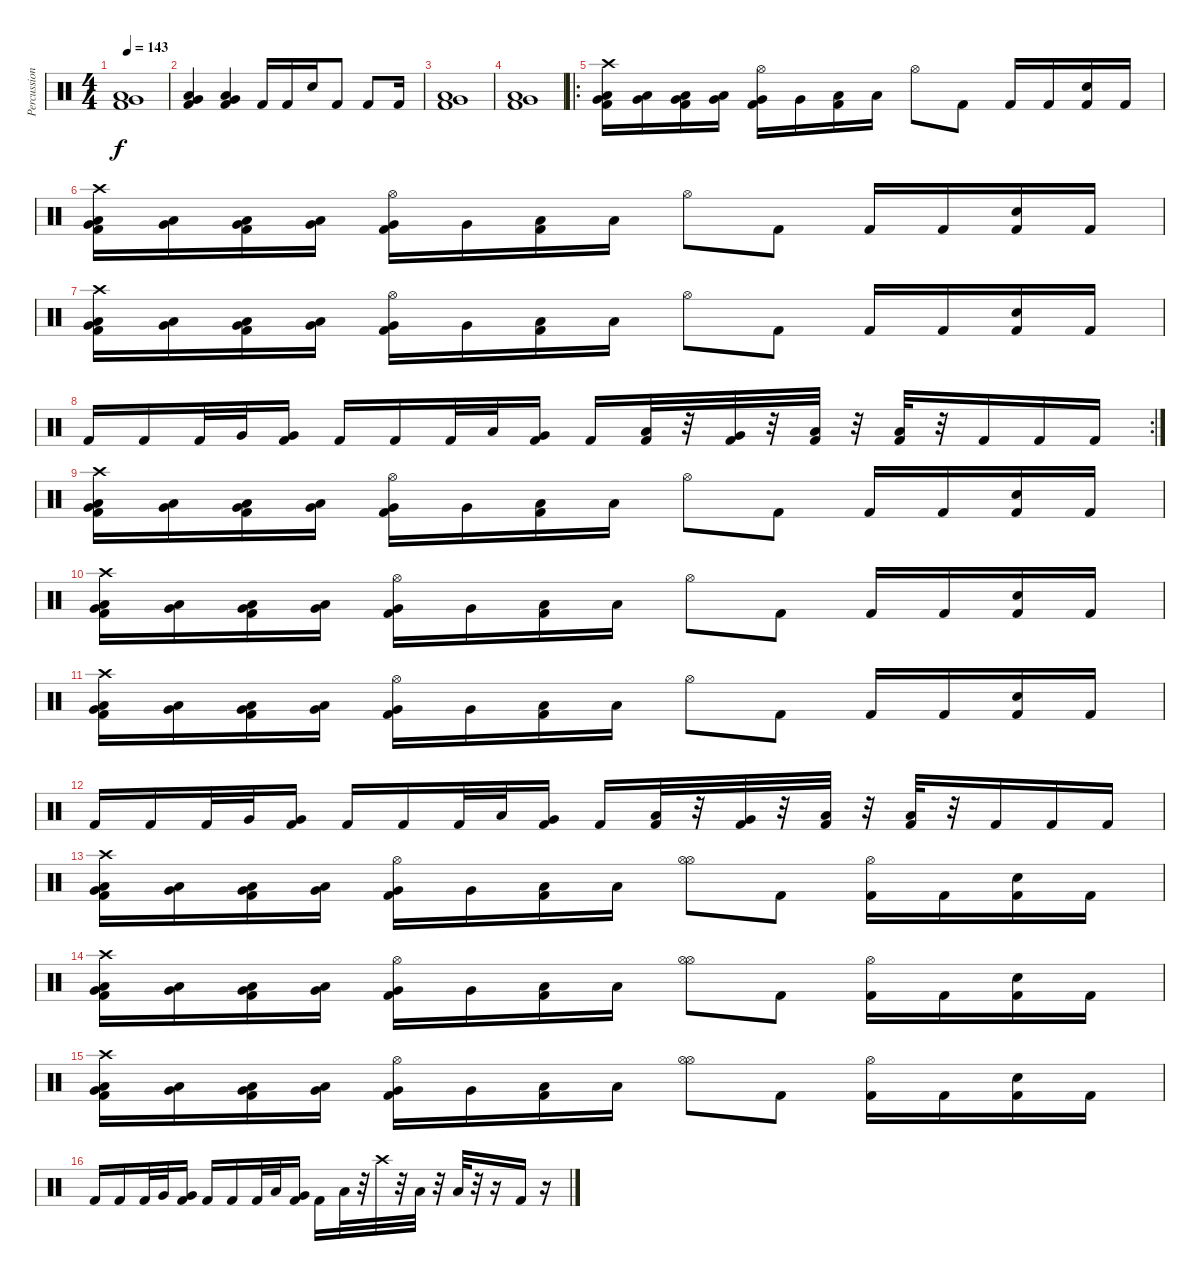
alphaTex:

\track ("Percussions" "Percussion") {instrument percussion}
\staff {score}
\articulation defaults
\ts (4 4)
\tempo 143
\clef neutral
\ks c
("Low Floor Tom (hit)" "Very Low Tom (hit)" "Kick (hit) 2").1{dy f} |
("Very Low Tom (hit)" "Low Floor Tom (hit)" "Kick (hit) 2").4 ("Very Low Tom (hit)" "Low Floor Tom (hit)" "Kick (hit) 2").4 "Kick (hit) 2".16 "Kick (hit) 2".16 "Snare (hit) 2".16 "Kick (hit) 2".8 "Kick (hit) 2".8 "Kick (hit) 2".16 |
("Very Low Tom (hit)" "Low Floor Tom (hit)" "Kick (hit) 2").1 |
("Very Low Tom (hit)" "Low Floor Tom (hit)" "Kick (hit) 2").1 |
\ro
("Crash high (hit)" "Very Low Tom (hit)" "Low Floor Tom (hit)" "Kick (hit) 2").16 ("Very Low Tom (hit)" "Low Floor Tom (hit)").16 ("Very Low Tom (hit)" "Low Floor Tom (hit)" "Kick (hit) 2").16 ("Very Low Tom (hit)" "Low Floor Tom (hit)").16 ("Hi-Hat (open)" "Very Low Tom (hit)" "Kick (hit) 2").16 "Very Low Tom (hit)".16 ("Low Floor Tom (hit)" "Kick (hit) 2").16 "Low Floor Tom (hit)".16 "Hi-Hat (open)".8 "Kick (hit) 2".8 "Kick (hit) 2".16 "Kick (hit) 2".16 ("Snare (hit) 2" "Kick (hit) 2").16 "Kick (hit) 2".16 |
("Crash high (hit)" "Very Low Tom (hit)" "Low Floor Tom (hit)" "Kick (hit) 2").16 ("Very Low Tom (hit)" "Low Floor Tom (hit)").16 ("Very Low Tom (hit)" "Low Floor Tom (hit)" "Kick (hit) 2").16 ("Very Low Tom (hit)" "Low Floor Tom (hit)").16 ("Hi-Hat (open)" "Very Low Tom (hit)" "Kick (hit) 2").16 "Very Low Tom (hit)".16 ("Low Floor Tom (hit)" "Kick (hit) 2").16 "Low Floor Tom (hit)".16 "Hi-Hat (open)".8 "Kick (hit) 2".8 "Kick (hit) 2".16 "Kick (hit) 2".16 ("Snare (hit) 2" "Kick (hit) 2").16 "Kick (hit) 2".16 |
("Crash high (hit)" "Very Low Tom (hit)" "Low Floor Tom (hit)" "Kick (hit) 2").16 ("Very Low Tom (hit)" "Low Floor Tom (hit)").16 ("Very Low Tom (hit)" "Low Floor Tom (hit)" "Kick (hit) 2").16 ("Very Low Tom (hit)" "Low Floor Tom (hit)").16 ("Hi-Hat (open)" "Very Low Tom (hit)" "Kick (hit) 2").16 "Very Low Tom (hit)".16 ("Low Floor Tom (hit)" "Kick (hit) 2").16 "Low Floor Tom (hit)".16 "Hi-Hat (open)".8 "Kick (hit) 2".8 "Kick (hit) 2".16 "Kick (hit) 2".16 ("Snare (hit) 2" "Kick (hit) 2").16 "Kick (hit) 2".16 |
\rc 2 "Kick (hit) 2".16 "Kick (hit) 2".16 "Kick (hit) 2".32 "Very Low Tom (hit)".32
("Very Low Tom (hit)" "Kick (hit) 2").16 "Kick (hit) 2".16 "Kick (hit) 2".16 "Kick (hit) 2".32 "Low Floor Tom (hit)".32 ("Very Low Tom (hit)" "Kick (hit) 2").16 "Kick (hit) 2".16 ("Kick (hit) 2" "Low Floor Tom (hit)").32 r.32 ("Kick (hit) 2" "Very Low Tom (hit)").32 r.32 ("Kick (hit) 2" "Low Floor Tom (hit)").32 r.32 ("Kick (hit) 2" "Low Tom (hit)").32 r.32 "Kick (hit) 2".16 "Kick (hit) 2".16 "Kick (hit) 2".16 |
("Crash high (hit)" "Very Low Tom (hit)" "Low Floor Tom (hit)" "Kick (hit) 2").16 ("Very Low Tom (hit)" "Low Floor Tom (hit)").16 ("Very Low Tom (hit)" "Low Floor Tom (hit)" "Kick (hit) 2").16 ("Very Low Tom (hit)" "Low Floor Tom (hit)").16 ("Hi-Hat (open)" "Very Low Tom (hit)" "Kick (hit) 2").16 "Very Low Tom (hit)".16 ("Low Floor Tom (hit)" "Kick (hit) 2").16 "Low Floor Tom (hit)".16 "Hi-Hat (open)".8 "Kick (hit) 2".8 "Kick (hit) 2".16 "Kick (hit) 2".16 ("Snare (hit) 2" "Kick (hit) 2").16 "Kick (hit) 2".16 |
("Crash high (hit)" "Very Low Tom (hit)" "Low Floor Tom (hit)" "Kick (hit) 2").16 ("Very Low Tom (hit)" "Low Floor Tom (hit)").16 ("Very Low Tom (hit)" "Low Floor Tom (hit)" "Kick (hit) 2").16 ("Very Low Tom (hit)" "Low Floor Tom (hit)").16 ("Hi-Hat (open)" "Very Low Tom (hit)" "Kick (hit) 2").16 "Very Low Tom (hit)".16 ("Low Floor Tom (hit)" "Kick (hit) 2").16 "Low Floor Tom (hit)".16 "Hi-Hat (open)".8 "Kick (hit) 2".8 "Kick (hit) 2".16 "Kick (hit) 2".16 ("Snare (hit) 2" "Kick (hit) 2").16 "Kick (hit) 2".16 |
("Crash high (hit)" "Very Low Tom (hit)" "Low Floor Tom (hit)" "Kick (hit) 2").16 ("Very Low Tom (hit)" "Low Floor Tom (hit)").16 ("Very Low Tom (hit)" "Low Floor Tom (hit)" "Kick (hit) 2").16 ("Very Low Tom (hit)" "Low Floor Tom (hit)").16 ("Hi-Hat (open)" "Very Low Tom (hit)" "Kick (hit) 2").16 "Very Low Tom (hit)".16 ("Low Floor Tom (hit)" "Kick (hit) 2").16 "Low Floor Tom (hit)".16 "Hi-Hat (open)".8 "Kick (hit) 2".8 "Kick (hit) 2".16 "Kick (hit) 2".16 ("Snare (hit) 2" "Kick (hit) 2").16 "Kick (hit) 2".16 |
"Kick (hit) 2".16 "Kick (hit) 2".16 "Kick (hit) 2".32 "Very Low Tom (hit)".32 ("Very Low Tom (hit)" "Kick (hit) 2").16 "Kick (hit) 2".16 "Kick (hit) 2".16 "Kick (hit) 2".32 "Low Floor Tom (hit)".32 ("Very Low Tom (hit)" "Kick (hit) 2").16 "Kick (hit) 2".16 ("Kick (hit) 2" "Low Floor Tom (hit)").32 r.32 ("Kick (hit) 2" "Very Low Tom (hit)").32 r.32 ("Kick (hit) 2" "Low Floor Tom (hit)").32 r.32 ("Kick (hit) 2" "Low Tom (hit)").32 r.32 "Kick (hit) 2".16 "Kick (hit) 2".16 "Kick (hit) 2".16 |
("Crash high (hit)" "Very Low Tom (hit)" "Low Floor Tom (hit)" "Kick (hit) 2").16 ("Very Low Tom (hit)" "Low Floor Tom (hit)").16 ("Very Low Tom (hit)" "Low Floor Tom (hit)" "Kick (hit) 2").16 ("Very Low Tom (hit)" "Low Floor Tom (hit)").16 ("Hi-Hat (open)" "Very Low Tom (hit)" "Kick (hit) 2").16 "Very Low Tom (hit)".16 ("Low Floor Tom (hit)" "Kick (hit) 2").16 "Low Floor Tom (hit)".16 ("Hi-Hat (open)" "Hi-Hat (open)").8 "Kick (hit) 2".8 ("Hi-Hat (open)" "Kick (hit) 2").16 "Kick (hit) 2".16 ("Snare (hit) 2" "Kick (hit) 2").16 "Kick (hit) 2".16 |
("Crash high (hit)" "Very Low Tom (hit)" "Low Floor Tom (hit)" "Kick (hit) 2").16 ("Very Low Tom (hit)" "Low Floor Tom (hit)").16 ("Very Low Tom (hit)" "Low Floor Tom (hit)" "Kick (hit) 2").16 ("Very Low Tom (hit)" "Low Floor Tom (hit)").16 ("Hi-Hat (open)" "Very Low Tom (hit)" "Kick (hit) 2").16 "Very Low Tom (hit)".16 ("Low Floor Tom (hit)" "Kick (hit) 2").16 "Low Floor Tom (hit)".16 ("Hi-Hat (open)" "Hi-Hat (open)").8 "Kick (hit) 2".8 ("Hi-Hat (open)" "Kick (hit) 2").16 "Kick (hit) 2".16 ("Snare (hit) 2" "Kick (hit) 2").16 "Kick (hit) 2".16 |
("Crash high (hit)" "Very Low Tom (hit)" "Low Floor Tom (hit)" "Kick (hit) 2").16 ("Very Low Tom (hit)" "Low Floor Tom (hit)").16 ("Very Low Tom (hit)" "Low Floor Tom (hit)" "Kick (hit) 2").16 ("Very Low Tom (hit)" "Low Floor Tom (hit)").16 ("Hi-Hat (open)" "Very Low Tom (hit)" "Kick (hit) 2").16 "Very Low Tom (hit)".16 ("Low Floor Tom (hit)" "Kick (hit) 2").16 "Low Floor Tom (hit)".16 ("Hi-Hat (open)" "Hi-Hat (open)").8 "Kick (hit) 2".8 ("Hi-Hat (open)" "Kick (hit) 2").16 "Kick (hit) 2".16 ("Snare (hit) 2" "Kick (hit) 2").16 "Kick (hit) 2".16 |
"Kick (hit) 2".16 "Kick (hit) 2".16 "Kick (hit) 2".32 "Very Low Tom (hit)".32 ("Very Low Tom (hit)" "Kick (hit) 2").16 "Kick (hit) 2".16 "Kick (hit) 2".16 "Kick (hit) 2".32 "Low Floor Tom (hit)".32 ("Very Low Tom (hit)" "Kick (hit) 2").16 "Kick (hit) 2".16 "Low Floor Tom (hit)".32 r.32 "Crash high (hit)".32 r.32 "Low Floor Tom (hit)".32 r.32 "Low Tom (hit)".32 r.32 r.16 "Kick (hit) 2".16 r.16
